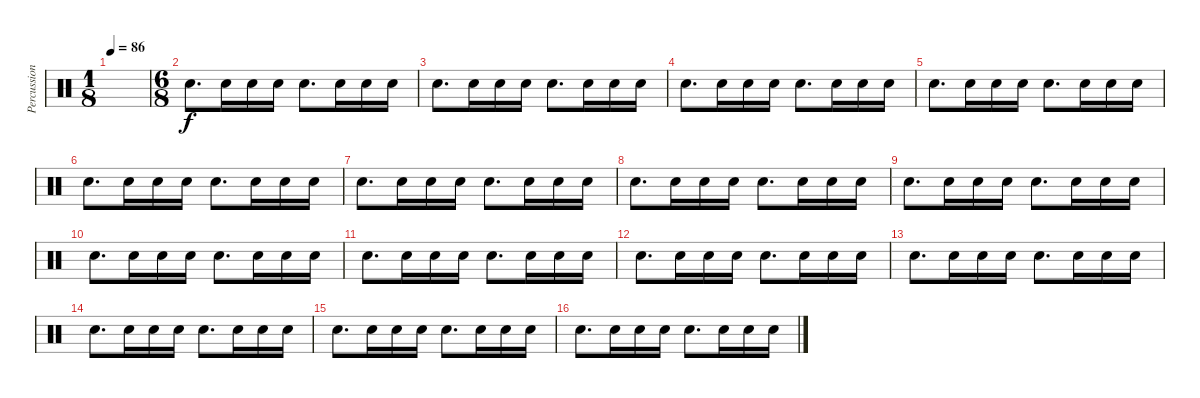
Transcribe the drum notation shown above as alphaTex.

\track ("Percussion" "Percussion") {instrument percussion}
\staff {score}
\articulation defaults
\ts (1 8)
\tempo 86
\clef neutral
\ks c
|
\ts (6 8)
"Hand Clap (hit)".8{d} "Hand Clap (hit)".16 "Hand Clap (hit)".16 "Hand Clap (hit)".16 "Hand Clap (hit)".8{d} "Hand Clap (hit)".16 "Hand Clap (hit)".16 "Hand Clap (hit)".16 |
"Hand Clap (hit)".8{d} "Hand Clap (hit)".16 "Hand Clap (hit)".16 "Hand Clap (hit)".16 "Hand Clap (hit)".8{d} "Hand Clap (hit)".16 "Hand Clap (hit)".16 "Hand Clap (hit)".16 |
"Hand Clap (hit)".8{d} "Hand Clap (hit)".16 "Hand Clap (hit)".16 "Hand Clap (hit)".16 "Hand Clap (hit)".8{d} "Hand Clap (hit)".16 "Hand Clap (hit)".16 "Hand Clap (hit)".16 |
"Hand Clap (hit)".8{d} "Hand Clap (hit)".16 "Hand Clap (hit)".16 "Hand Clap (hit)".16 "Hand Clap (hit)".8{d} "Hand Clap (hit)".16 "Hand Clap (hit)".16 "Hand Clap (hit)".16 |
"Hand Clap (hit)".8{d} "Hand Clap (hit)".16 "Hand Clap (hit)".16 "Hand Clap (hit)".16 "Hand Clap (hit)".8{d} "Hand Clap (hit)".16 "Hand Clap (hit)".16 "Hand Clap (hit)".16 |
"Hand Clap (hit)".8{d} "Hand Clap (hit)".16 "Hand Clap (hit)".16 "Hand Clap (hit)".16 "Hand Clap (hit)".8{d} "Hand Clap (hit)".16 "Hand Clap (hit)".16 "Hand Clap (hit)".16 |
"Hand Clap (hit)".8{d} "Hand Clap (hit)".16 "Hand Clap (hit)".16 "Hand Clap (hit)".16 "Hand Clap (hit)".8{d} "Hand Clap (hit)".16 "Hand Clap (hit)".16 "Hand Clap (hit)".16 |
"Hand Clap (hit)".8{d} "Hand Clap (hit)".16 "Hand Clap (hit)".16 "Hand Clap (hit)".16 "Hand Clap (hit)".8{d} "Hand Clap (hit)".16 "Hand Clap (hit)".16 "Hand Clap (hit)".16 |
"Hand Clap (hit)".8{d} "Hand Clap (hit)".16 "Hand Clap (hit)".16 "Hand Clap (hit)".16 "Hand Clap (hit)".8{d} "Hand Clap (hit)".16 "Hand Clap (hit)".16 "Hand Clap (hit)".16 |
"Hand Clap (hit)".8{d} "Hand Clap (hit)".16 "Hand Clap (hit)".16 "Hand Clap (hit)".16 "Hand Clap (hit)".8{d} "Hand Clap (hit)".16 "Hand Clap (hit)".16 "Hand Clap (hit)".16 |
"Hand Clap (hit)".8{d} "Hand Clap (hit)".16 "Hand Clap (hit)".16 "Hand Clap (hit)".16 "Hand Clap (hit)".8{d} "Hand Clap (hit)".16 "Hand Clap (hit)".16 "Hand Clap (hit)".16 |
"Hand Clap (hit)".8{d} "Hand Clap (hit)".16 "Hand Clap (hit)".16 "Hand Clap (hit)".16 "Hand Clap (hit)".8{d} "Hand Clap (hit)".16 "Hand Clap (hit)".16 "Hand Clap (hit)".16 |
"Hand Clap (hit)".8{d} "Hand Clap (hit)".16 "Hand Clap (hit)".16 "Hand Clap (hit)".16 "Hand Clap (hit)".8{d} "Hand Clap (hit)".16 "Hand Clap (hit)".16 "Hand Clap (hit)".16 |
"Hand Clap (hit)".8{d} "Hand Clap (hit)".16 "Hand Clap (hit)".16 "Hand Clap (hit)".16 "Hand Clap (hit)".8{d} "Hand Clap (hit)".16 "Hand Clap (hit)".16 "Hand Clap (hit)".16 |
"Hand Clap (hit)".8{d} "Hand Clap (hit)".16 "Hand Clap (hit)".16 "Hand Clap (hit)".16 "Hand Clap (hit)".8{d} "Hand Clap (hit)".16 "Hand Clap (hit)".16 "Hand Clap (hit)".16
